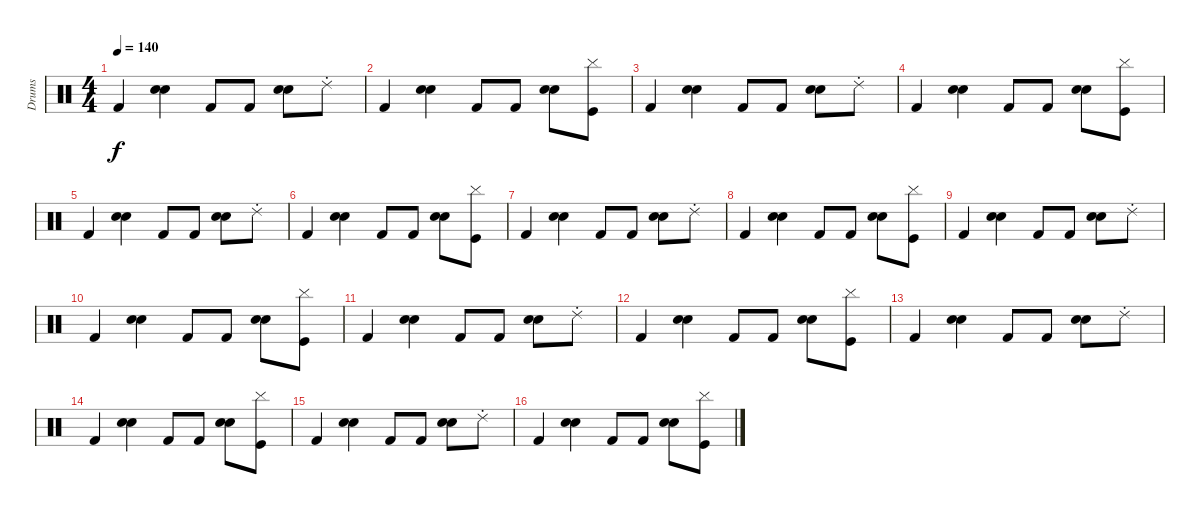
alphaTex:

\track ("Drums" "Drums") {instrument percussion}
\staff {score}
\articulation defaults
\ts (4 4)
\tempo 140
\clef neutral
\ks c "Kick (hit) 2".4{dy f}
("Hand Clap (hit)" "Electric Snare (hit)").4 "Kick (hit) 2".8 "Kick (hit) 2".8 ("Hand Clap (hit)" "Electric Snare (hit)").8 "Ride (choke) 2".8 |
"Kick (hit) 2".4 ("Hand Clap (hit)" "Electric Snare (hit)").4 "Kick (hit) 2".8 "Kick (hit) 2".8 ("Hand Clap (hit)" "Electric Snare (hit)").8 ("Kick (hit)" "Cymbal (hit)").8 |
"Kick (hit) 2".4 ("Hand Clap (hit)" "Electric Snare (hit)").4 "Kick (hit) 2".8 "Kick (hit) 2".8 ("Hand Clap (hit)" "Electric Snare (hit)").8 "Ride (choke) 2".8 |
"Kick (hit) 2".4 ("Hand Clap (hit)" "Electric Snare (hit)").4 "Kick (hit) 2".8 "Kick (hit) 2".8 ("Hand Clap (hit)" "Electric Snare (hit)").8 ("Kick (hit)" "Cymbal (hit)").8 |
"Kick (hit) 2".4 ("Hand Clap (hit)" "Electric Snare (hit)").4 "Kick (hit) 2".8 "Kick (hit) 2".8 ("Hand Clap (hit)" "Electric Snare (hit)").8 "Ride (choke) 2".8 |
"Kick (hit) 2".4 ("Hand Clap (hit)" "Electric Snare (hit)").4 "Kick (hit) 2".8 "Kick (hit) 2".8 ("Hand Clap (hit)" "Electric Snare (hit)").8 ("Kick (hit)" "Cymbal (hit)").8 |
"Kick (hit) 2".4 ("Hand Clap (hit)" "Electric Snare (hit)").4 "Kick (hit) 2".8 "Kick (hit) 2".8 ("Hand Clap (hit)" "Electric Snare (hit)").8 "Ride (choke) 2".8 |
"Kick (hit) 2".4 ("Hand Clap (hit)" "Electric Snare (hit)").4 "Kick (hit) 2".8 "Kick (hit) 2".8 ("Hand Clap (hit)" "Electric Snare (hit)").8 ("Kick (hit)" "Cymbal (hit)").8 |
"Kick (hit) 2".4 ("Hand Clap (hit)" "Electric Snare (hit)").4 "Kick (hit) 2".8 "Kick (hit) 2".8 ("Hand Clap (hit)" "Electric Snare (hit)").8 "Ride (choke) 2".8 |
"Kick (hit) 2".4 ("Hand Clap (hit)" "Electric Snare (hit)").4 "Kick (hit) 2".8 "Kick (hit) 2".8 ("Hand Clap (hit)" "Electric Snare (hit)").8 ("Kick (hit)" "Cymbal (hit)").8 |
"Kick (hit) 2".4 ("Hand Clap (hit)" "Electric Snare (hit)").4 "Kick (hit) 2".8 "Kick (hit) 2".8 ("Hand Clap (hit)" "Electric Snare (hit)").8 "Ride (choke) 2".8 |
"Kick (hit) 2".4 ("Hand Clap (hit)" "Electric Snare (hit)").4 "Kick (hit) 2".8 "Kick (hit) 2".8 ("Hand Clap (hit)" "Electric Snare (hit)").8 ("Kick (hit)" "Cymbal (hit)").8 |
"Kick (hit) 2".4 ("Hand Clap (hit)" "Electric Snare (hit)").4 "Kick (hit) 2".8 "Kick (hit) 2".8 ("Hand Clap (hit)" "Electric Snare (hit)").8 "Ride (choke) 2".8 |
"Kick (hit) 2".4 ("Hand Clap (hit)" "Electric Snare (hit)").4 "Kick (hit) 2".8 "Kick (hit) 2".8 ("Hand Clap (hit)" "Electric Snare (hit)").8 ("Kick (hit)" "Cymbal (hit)").8 |
"Kick (hit) 2".4 ("Hand Clap (hit)" "Electric Snare (hit)").4 "Kick (hit) 2".8 "Kick (hit) 2".8 ("Hand Clap (hit)" "Electric Snare (hit)").8 "Ride (choke) 2".8 |
"Kick (hit) 2".4 ("Hand Clap (hit)" "Electric Snare (hit)").4 "Kick (hit) 2".8 "Kick (hit) 2".8 ("Hand Clap (hit)" "Electric Snare (hit)").8 ("Kick (hit)" "Cymbal (hit)").8
